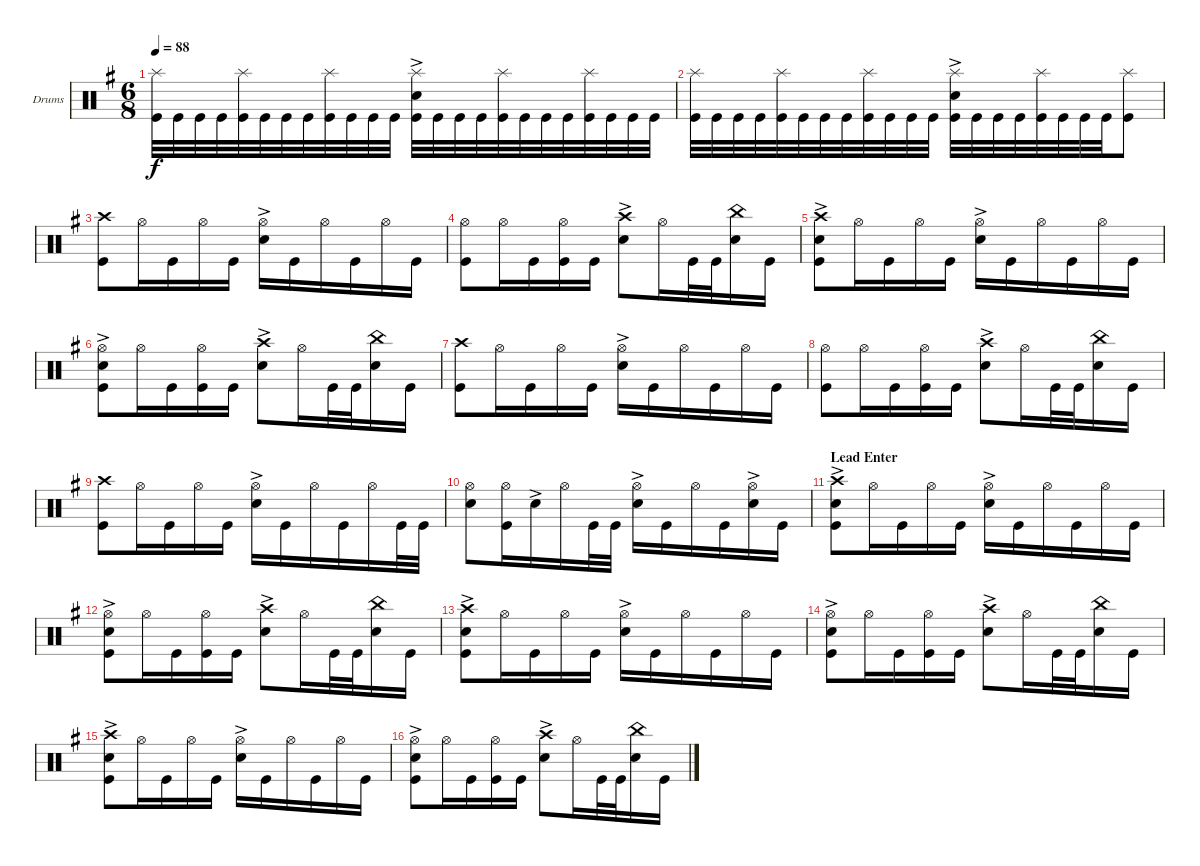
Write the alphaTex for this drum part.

\bracketExtendMode groupsimilarinstruments
\firstSystemTrackNameOrientation horizontal
\otherSystemsTrackNameOrientation horizontal
\track ("Drumkit" "Drums") {instrument percussion}
\staff {score}
\articulation defaults
\ts (6 8)
\tempo 88
\clef neutral
\ks eminor
("Kick (hit)" "Splash (hit)").32{dy f} "Kick (hit)".32 "Kick (hit)".32 "Kick (hit)".32 ("Kick (hit)" "Splash (hit)").32 "Kick (hit)".32 "Kick (hit)".32 "Kick (hit)".32 ("Kick (hit)" "Splash (hit)").32 "Kick (hit)".32 "Kick (hit)".32 "Kick (hit)".32 ("Kick (hit)" "Snare (hit) 2"{ac} "Splash (hit)").32 "Kick (hit)".32 "Kick (hit)".32 "Kick (hit)".32 ("Kick (hit)" "Splash (hit)").32 "Kick (hit)".32 "Kick (hit)".32 "Kick (hit)".32 ("Kick (hit)" "Splash (hit)").32 "Kick (hit)".32 "Kick (hit)".32 "Kick (hit)".32 |
("Kick (hit)" "Splash (hit)").32 "Kick (hit)".32 "Kick (hit)".32 "Kick (hit)".32 ("Kick (hit)" "Splash (hit)").32 "Kick (hit)".32 "Kick (hit)".32 "Kick (hit)".32 ("Kick (hit)" "Splash (hit)").32 "Kick (hit)".32 "Kick (hit)".32 "Kick (hit)".32 ("Kick (hit)" "Snare (hit) 2"{ac} "Splash (hit)").32 "Kick (hit)".32 "Kick (hit)".32 "Kick (hit)".32 ("Kick (hit)" "Splash (hit)").32 "Kick (hit)".32 "Kick (hit)".32 "Kick (hit)".32 ("Kick (hit)" "Splash (hit)").8 |
("Crash high (hit)" "Kick (hit)").8 "Hi-Hat (open)".16 "Kick (hit)".16 "Hi-Hat (open)".16 "Kick (hit)".16 ("Snare (hit) 2"{ac} "Hi-Hat (open)").16 "Kick (hit)".16 "Hi-Hat (open)".16 "Kick (hit)".16 "Hi-Hat (open)".16 "Kick (hit)".16 |
("Kick (hit)" "Hi-Hat (open)").8 "Hi-Hat (open)".16 "Kick (hit)".16 ("Kick (hit)" "Hi-Hat (open)").16 "Kick (hit)".16 ("Crash high (hit)" "Snare (hit) 2"{ac}).8 "Hi-Hat (open)".16 "Kick (hit)".32 "Kick (hit)".32 ("Snare (hit) 2" "China (hit)").16 "Kick (hit)".16 |
("Crash high (hit)" "Kick (hit)" "Snare (hit) 2"{ac}).8 "Hi-Hat (open)".16 "Kick (hit)".16 "Hi-Hat (open)".16 "Kick (hit)".16 ("Snare (hit) 2"{ac} "Hi-Hat (open)").16 "Kick (hit)".16 "Hi-Hat (open)".16 "Kick (hit)".16 "Hi-Hat (open)".16 "Kick (hit)".16 |
("Kick (hit)" "Hi-Hat (open)" "Snare (hit) 2"{ac}).8 "Hi-Hat (open)".16 "Kick (hit)".16 ("Kick (hit)" "Hi-Hat (open)").16 "Kick (hit)".16 ("Crash high (hit)" "Snare (hit) 2"{ac}).8 "Hi-Hat (open)".16 "Kick (hit)".32 "Kick (hit)".32 ("Snare (hit) 2" "China (hit)").16 "Kick (hit)".16 |
("Crash high (hit)" "Kick (hit)").8 "Hi-Hat (open)".16 "Kick (hit)".16 "Hi-Hat (open)".16 "Kick (hit)".16 ("Snare (hit) 2"{ac} "Hi-Hat (open)").16 "Kick (hit)".16 "Hi-Hat (open)".16 "Kick (hit)".16 "Hi-Hat (open)".16 "Kick (hit)".16 |
("Kick (hit)" "Hi-Hat (open)").8 "Hi-Hat (open)".16 "Kick (hit)".16 ("Kick (hit)" "Hi-Hat (open)").16 "Kick (hit)".16 ("Crash high (hit)" "Snare (hit) 2"{ac}).8 "Hi-Hat (open)".16 "Kick (hit)".32 "Kick (hit)".32 ("Snare (hit) 2" "China (hit)").16 "Kick (hit)".16 |
("Crash high (hit)" "Kick (hit)").8 "Hi-Hat (open)".16 "Kick (hit)".16 "Hi-Hat (open)".16 "Kick (hit)".16 ("Snare (hit) 2"{ac} "Hi-Hat (open)").16 "Kick (hit)".16 "Hi-Hat (open)".16 "Kick (hit)".16 "Hi-Hat (open)".16 "Kick (hit)".32 "Kick (hit)".32 |
("Snare (hit) 2" "Hi-Hat (open)").8 ("Kick (hit)" "Hi-Hat (open)").16 "Snare (hit) 2"{ac}.16 "Hi-Hat (open)".16 "Kick (hit)".32 "Kick (hit)".32 ("Snare (hit) 2"{ac} "Hi-Hat (open)").16 "Kick (hit)".16 "Hi-Hat (open)".16 "Kick (hit)".16 ("Snare (hit) 2"{ac} "Hi-Hat (open)").16 "Kick (hit)".16 |
\section ("" "Lead Enter")
("Crash high (hit)" "Kick (hit)" "Snare (hit) 2"{ac}).8 "Hi-Hat (open)".16 "Kick (hit)".16 "Hi-Hat (open)".16 "Kick (hit)".16 ("Snare (hit) 2"{ac} "Hi-Hat (open)").16 "Kick (hit)".16 "Hi-Hat (open)".16 "Kick (hit)".16 "Hi-Hat (open)".16 "Kick (hit)".16 |
("Kick (hit)" "Hi-Hat (open)" "Snare (hit) 2"{ac}).8 "Hi-Hat (open)".16 "Kick (hit)".16 ("Kick (hit)" "Hi-Hat (open)").16 "Kick (hit)".16 ("Crash high (hit)" "Snare (hit) 2"{ac}).8 "Hi-Hat (open)".16 "Kick (hit)".32 "Kick (hit)".32 ("Snare (hit) 2" "China (hit)").16 "Kick (hit)".16 |
("Crash high (hit)" "Kick (hit)" "Snare (hit) 2"{ac}).8 "Hi-Hat (open)".16 "Kick (hit)".16 "Hi-Hat (open)".16 "Kick (hit)".16 ("Snare (hit) 2"{ac} "Hi-Hat (open)").16 "Kick (hit)".16 "Hi-Hat (open)".16 "Kick (hit)".16 "Hi-Hat (open)".16 "Kick (hit)".16 |
("Kick (hit)" "Hi-Hat (open)" "Snare (hit) 2"{ac}).8 "Hi-Hat (open)".16 "Kick (hit)".16 ("Kick (hit)" "Hi-Hat (open)").16 "Kick (hit)".16 ("Crash high (hit)" "Snare (hit) 2"{ac}).8 "Hi-Hat (open)".16 "Kick (hit)".32 "Kick (hit)".32 ("Snare (hit) 2" "China (hit)").16 "Kick (hit)".16 |
("Crash high (hit)" "Kick (hit)" "Snare (hit) 2"{ac}).8 "Hi-Hat (open)".16 "Kick (hit)".16 "Hi-Hat (open)".16 "Kick (hit)".16 ("Snare (hit) 2"{ac} "Hi-Hat (open)").16 "Kick (hit)".16 "Hi-Hat (open)".16 "Kick (hit)".16 "Hi-Hat (open)".16 "Kick (hit)".16 |
("Kick (hit)" "Hi-Hat (open)" "Snare (hit) 2"{ac}).8 "Hi-Hat (open)".16 "Kick (hit)".16 ("Kick (hit)" "Hi-Hat (open)").16 "Kick (hit)".16 ("Crash high (hit)" "Snare (hit) 2"{ac}).8 "Hi-Hat (open)".16 "Kick (hit)".32 "Kick (hit)".32 ("Snare (hit) 2" "China (hit)").16 "Kick (hit)".16
